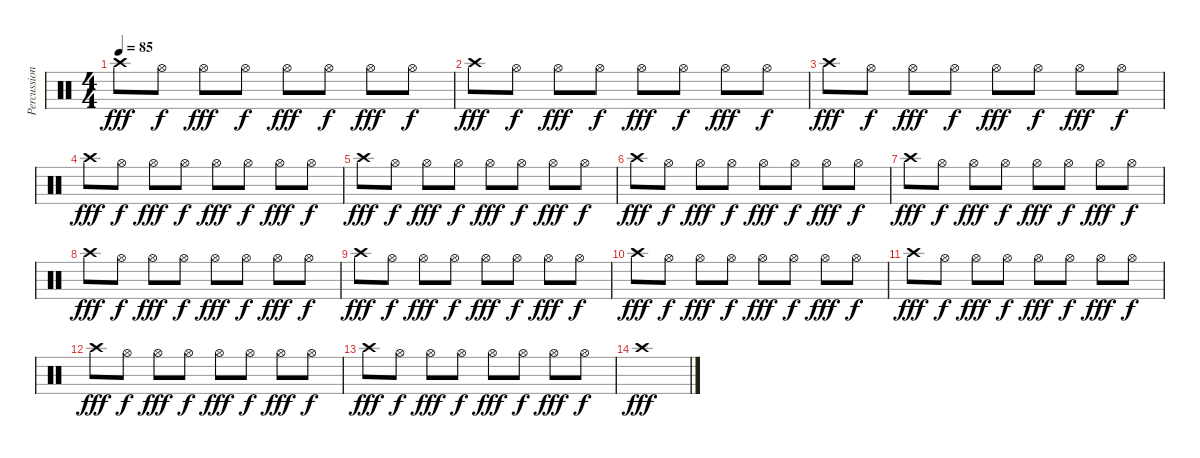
\track ("Percussion" "Percussion") {instrument percussion}
\staff {score}
\articulation defaults
\ts (4 4)
\tempo 85
\clef neutral
\ks c "Crash high (hit)".8{dy fff} "Hi-Hat (open)".8{dy f} "Hi-Hat (open)".8{dy fff} "Hi-Hat (open)".8{dy f} "Hi-Hat (open)".8{dy fff} "Hi-Hat (open)".8{dy f} "Hi-Hat (open)".8{dy fff} "Hi-Hat (open)".8{dy f}
|
"Crash high (hit)".8{dy fff} "Hi-Hat (open)".8{dy f} "Hi-Hat (open)".8{dy fff} "Hi-Hat (open)".8{dy f} "Hi-Hat (open)".8{dy fff} "Hi-Hat (open)".8{dy f} "Hi-Hat (open)".8{dy fff} "Hi-Hat (open)".8{dy f} |
"Crash high (hit)".8{dy fff} "Hi-Hat (open)".8{dy f} "Hi-Hat (open)".8{dy fff} "Hi-Hat (open)".8{dy f} "Hi-Hat (open)".8{dy fff} "Hi-Hat (open)".8{dy f} "Hi-Hat (open)".8{dy fff} "Hi-Hat (open)".8{dy f} |
"Crash high (hit)".8{dy fff} "Hi-Hat (open)".8{dy f} "Hi-Hat (open)".8{dy fff} "Hi-Hat (open)".8{dy f} "Hi-Hat (open)".8{dy fff} "Hi-Hat (open)".8{dy f} "Hi-Hat (open)".8{dy fff} "Hi-Hat (open)".8{dy f} |
"Crash high (hit)".8{dy fff} "Hi-Hat (open)".8{dy f} "Hi-Hat (open)".8{dy fff} "Hi-Hat (open)".8{dy f} "Hi-Hat (open)".8{dy fff} "Hi-Hat (open)".8{dy f} "Hi-Hat (open)".8{dy fff} "Hi-Hat (open)".8{dy f} |
"Crash high (hit)".8{dy fff} "Hi-Hat (open)".8{dy f} "Hi-Hat (open)".8{dy fff} "Hi-Hat (open)".8{dy f} "Hi-Hat (open)".8{dy fff} "Hi-Hat (open)".8{dy f} "Hi-Hat (open)".8{dy fff} "Hi-Hat (open)".8{dy f} |
"Crash high (hit)".8{dy fff} "Hi-Hat (open)".8{dy f} "Hi-Hat (open)".8{dy fff} "Hi-Hat (open)".8{dy f} "Hi-Hat (open)".8{dy fff} "Hi-Hat (open)".8{dy f} "Hi-Hat (open)".8{dy fff} "Hi-Hat (open)".8{dy f} |
"Crash high (hit)".8{dy fff} "Hi-Hat (open)".8{dy f} "Hi-Hat (open)".8{dy fff} "Hi-Hat (open)".8{dy f} "Hi-Hat (open)".8{dy fff} "Hi-Hat (open)".8{dy f} "Hi-Hat (open)".8{dy fff} "Hi-Hat (open)".8{dy f} |
"Crash high (hit)".8{dy fff} "Hi-Hat (open)".8{dy f} "Hi-Hat (open)".8{dy fff} "Hi-Hat (open)".8{dy f} "Hi-Hat (open)".8{dy fff} "Hi-Hat (open)".8{dy f} "Hi-Hat (open)".8{dy fff} "Hi-Hat (open)".8{dy f} |
"Crash high (hit)".8{dy fff} "Hi-Hat (open)".8{dy f} "Hi-Hat (open)".8{dy fff} "Hi-Hat (open)".8{dy f} "Hi-Hat (open)".8{dy fff} "Hi-Hat (open)".8{dy f} "Hi-Hat (open)".8{dy fff} "Hi-Hat (open)".8{dy f} |
"Crash high (hit)".8{dy fff} "Hi-Hat (open)".8{dy f} "Hi-Hat (open)".8{dy fff} "Hi-Hat (open)".8{dy f} "Hi-Hat (open)".8{dy fff} "Hi-Hat (open)".8{dy f} "Hi-Hat (open)".8{dy fff} "Hi-Hat (open)".8{dy f} |
"Crash high (hit)".8{dy fff} "Hi-Hat (open)".8{dy f} "Hi-Hat (open)".8{dy fff} "Hi-Hat (open)".8{dy f} "Hi-Hat (open)".8{dy fff} "Hi-Hat (open)".8{dy f} "Hi-Hat (open)".8{dy fff} "Hi-Hat (open)".8{dy f} |
"Crash high (hit)".8{dy fff} "Hi-Hat (open)".8{dy f} "Hi-Hat (open)".8{dy fff} "Hi-Hat (open)".8{dy f} "Hi-Hat (open)".8{dy fff} "Hi-Hat (open)".8{dy f} "Hi-Hat (open)".8{dy fff} "Hi-Hat (open)".8{dy f} |
"Crash high (hit)".1{dy fff}
